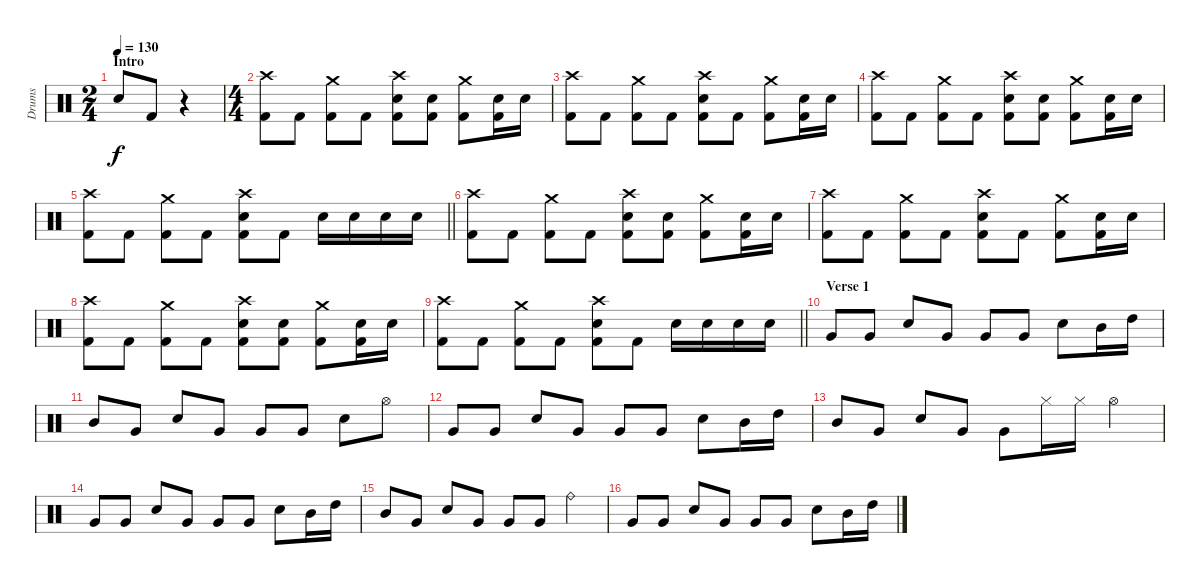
\track ("Drums" "Drums") {instrument percussion}
\staff {score}
\articulation defaults
\ts (2 4)
\section ("" "Intro")
\tempo 130
\clef neutral
\ks c "Electric Snare (hit)".8{dy f} "Kick (hit) 2".8
r.4 |
\ts (4 4)
("Crash high (hit)" "Kick (hit) 2").8 "Kick (hit) 2".8 ("Crash medium (hit)" "Kick (hit) 2").8 "Kick (hit) 2".8 ("Crash high (hit)" "Electric Snare (hit)" "Kick (hit) 2").8 ("Electric Snare (hit)" "Kick (hit) 2").8 ("Crash medium (hit)" "Kick (hit) 2").8 ("Electric Snare (hit)" "Kick (hit) 2").16 "Electric Snare (hit)".16 |
("Crash high (hit)" "Kick (hit) 2").8 "Kick (hit) 2".8 ("Crash medium (hit)" "Kick (hit) 2").8 "Kick (hit) 2".8 ("Crash high (hit)" "Electric Snare (hit)" "Kick (hit) 2").8 "Kick (hit) 2".8 ("Crash medium (hit)" "Kick (hit) 2").8 ("Electric Snare (hit)" "Kick (hit) 2").16 "Electric Snare (hit)".16 |
("Crash high (hit)" "Kick (hit) 2").8 "Kick (hit) 2".8 ("Crash medium (hit)" "Kick (hit) 2").8 "Kick (hit) 2".8 ("Crash high (hit)" "Electric Snare (hit)" "Kick (hit) 2").8 ("Electric Snare (hit)" "Kick (hit) 2").8 ("Crash medium (hit)" "Kick (hit) 2").8 ("Electric Snare (hit)" "Kick (hit) 2").16 "Electric Snare (hit)".16 |
\barLineRight lightlight
("Crash high (hit)" "Kick (hit) 2").8 "Kick (hit) 2".8 ("Crash medium (hit)" "Kick (hit) 2").8 "Kick (hit) 2".8 ("Crash high (hit)" "Electric Snare (hit)" "Kick (hit) 2").8 "Kick (hit) 2".8 "Electric Snare (hit)".16 "Electric Snare (hit)".16 "Electric Snare (hit)".16 "Electric Snare (hit)".16 |
("Crash high (hit)" "Kick (hit) 2").8 "Kick (hit) 2".8 ("Crash medium (hit)" "Kick (hit) 2").8 "Kick (hit) 2".8 ("Crash high (hit)" "Electric Snare (hit)" "Kick (hit) 2").8 ("Electric Snare (hit)" "Kick (hit) 2").8 ("Crash medium (hit)" "Kick (hit) 2").8 ("Electric Snare (hit)" "Kick (hit) 2").16 "Electric Snare (hit)".16 |
("Crash high (hit)" "Kick (hit) 2").8 "Kick (hit) 2".8 ("Crash medium (hit)" "Kick (hit) 2").8 "Kick (hit) 2".8 ("Crash high (hit)" "Electric Snare (hit)" "Kick (hit) 2").8 "Kick (hit) 2".8 ("Crash medium (hit)" "Kick (hit) 2").8 ("Electric Snare (hit)" "Kick (hit) 2").16 "Electric Snare (hit)".16 |
("Crash high (hit)" "Kick (hit) 2").8 "Kick (hit) 2".8 ("Crash medium (hit)" "Kick (hit) 2").8 "Kick (hit) 2".8 ("Crash high (hit)" "Electric Snare (hit)" "Kick (hit) 2").8 ("Electric Snare (hit)" "Kick (hit) 2").8 ("Crash medium (hit)" "Kick (hit) 2").8 ("Electric Snare (hit)" "Kick (hit) 2").16 "Electric Snare (hit)".16 |
\barLineRight lightlight
("Crash high (hit)" "Kick (hit) 2").8 "Kick (hit) 2".8 ("Crash medium (hit)" "Kick (hit) 2").8 "Kick (hit) 2".8 ("Crash high (hit)" "Electric Snare (hit)" "Kick (hit) 2").8 "Kick (hit) 2".8 "Electric Snare (hit)".16 "Electric Snare (hit)".16 "Electric Snare (hit)".16 "Electric Snare (hit)".16 |
\section ("" "Verse 1")
"Very Low Tom (hit)".8 "Very Low Tom (hit)".8 "Electric Snare (hit)".8 "Very Low Tom (hit)".8 "Very Low Tom (hit)".8 "Very Low Tom (hit)".8 "Electric Snare (hit)".8 "Mid Tom (hit)".16 "High Tom (hit)".16 |
"Mid Tom (hit)".8 "Very Low Tom (hit)".8 "Electric Snare (hit)".8 "Very Low Tom (hit)".8 "Very Low Tom (hit)".8 "Very Low Tom (hit)".8 "Electric Snare (hit)".8 "Hi-Hat (open)".8 |
"Very Low Tom (hit)".8 "Very Low Tom (hit)".8 "Electric Snare (hit)".8 "Very Low Tom (hit)".8 "Very Low Tom (hit)".8 "Very Low Tom (hit)".8 "Electric Snare (hit)".8 "Mid Tom (hit)".16 "High Tom (hit)".16 |
"Mid Tom (hit)".8 "Very Low Tom (hit)".8 "Electric Snare (hit)".8 "Very Low Tom (hit)".8 "Very Low Tom (hit)".8 "Hi-Hat (closed)".16 "Hi-Hat (closed)".16 "Hi-Hat (open)".4 |
"Very Low Tom (hit)".8 "Very Low Tom (hit)".8 "Electric Snare (hit)".8 "Very Low Tom (hit)".8 "Very Low Tom (hit)".8 "Very Low Tom (hit)".8 "Electric Snare (hit)".8 "Mid Tom (hit)".16 "High Tom (hit)".16 |
"Mid Tom (hit)".8 "Very Low Tom (hit)".8 "Electric Snare (hit)".8 "Very Low Tom (hit)".8 "Very Low Tom (hit)".8 "Very Low Tom (hit)".8 "Ride (bell)".4 |
"Very Low Tom (hit)".8 "Very Low Tom (hit)".8 "Electric Snare (hit)".8 "Very Low Tom (hit)".8 "Very Low Tom (hit)".8 "Very Low Tom (hit)".8 "Electric Snare (hit)".8 "Mid Tom (hit)".16 "High Tom (hit)".16
